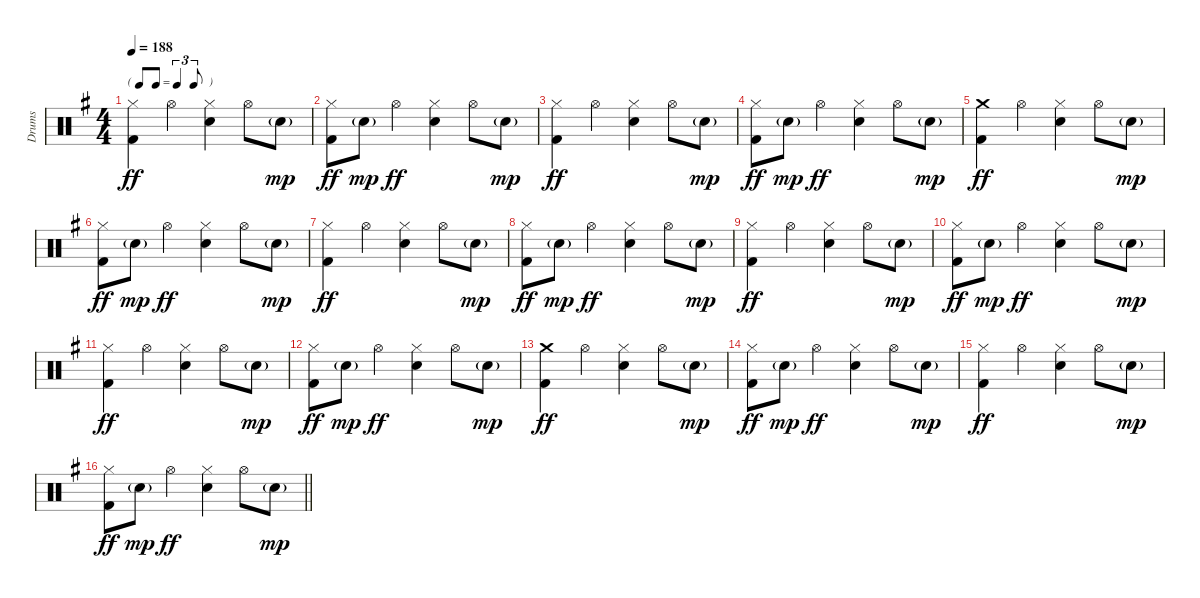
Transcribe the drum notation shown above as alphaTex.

\track ("Drums" "Drums") {instrument percussion}
\staff {score}
\articulation defaults
\ts (4 4)
\tf triplet8th
\tempo 188
\clef neutral
\ks g
("Hi-Hat (closed)" "Kick (hit) 2").4{dy ff} "Hi-Hat (open)".4 ("Hi-Hat (closed)" "Snare (hit) 2").4 "Hi-Hat (open)".8 "Snare (hit) 2"{g}.8{dy mp} |
("Hi-Hat (closed)" "Kick (hit) 2").8{dy ff} "Snare (hit) 2"{g}.8{dy mp} "Hi-Hat (open)".4{dy ff} ("Hi-Hat (closed)" "Snare (hit) 2").4 "Hi-Hat (open)".8 "Snare (hit) 2"{g}.8{dy mp} |
("Hi-Hat (closed)" "Kick (hit) 2").4{dy ff} "Hi-Hat (open)".4 ("Hi-Hat (closed)" "Snare (hit) 2").4 "Hi-Hat (open)".8 "Snare (hit) 2"{g}.8{dy mp} |
("Hi-Hat (closed)" "Kick (hit) 2").8{dy ff} "Snare (hit) 2"{g}.8{dy mp} "Hi-Hat (open)".4{dy ff} ("Hi-Hat (closed)" "Snare (hit) 2").4 "Hi-Hat (open)".8 "Snare (hit) 2"{g}.8{dy mp} |
("Crash medium (hit)" "Kick (hit) 2").4{dy ff} "Hi-Hat (open)".4 ("Hi-Hat (closed)" "Snare (hit) 2").4 "Hi-Hat (open)".8 "Snare (hit) 2"{g}.8{dy mp} |
("Hi-Hat (closed)" "Kick (hit) 2").8{dy ff} "Snare (hit) 2"{g}.8{dy mp} "Hi-Hat (open)".4{dy ff} ("Hi-Hat (closed)" "Snare (hit) 2").4 "Hi-Hat (open)".8 "Snare (hit) 2"{g}.8{dy mp} |
("Hi-Hat (closed)" "Kick (hit) 2").4{dy ff} "Hi-Hat (open)".4 ("Hi-Hat (closed)" "Snare (hit) 2").4 "Hi-Hat (open)".8 "Snare (hit) 2"{g}.8{dy mp} |
("Hi-Hat (closed)" "Kick (hit) 2").8{dy ff} "Snare (hit) 2"{g}.8{dy mp} "Hi-Hat (open)".4{dy ff} ("Hi-Hat (closed)" "Snare (hit) 2").4 "Hi-Hat (open)".8 "Snare (hit) 2"{g}.8{dy mp} |
("Hi-Hat (closed)" "Kick (hit) 2").4{dy ff} "Hi-Hat (open)".4 ("Hi-Hat (closed)" "Snare (hit) 2").4 "Hi-Hat (open)".8 "Snare (hit) 2"{g}.8{dy mp} |
("Hi-Hat (closed)" "Kick (hit) 2").8{dy ff} "Snare (hit) 2"{g}.8{dy mp} "Hi-Hat (open)".4{dy ff} ("Hi-Hat (closed)" "Snare (hit) 2").4 "Hi-Hat (open)".8 "Snare (hit) 2"{g}.8{dy mp} |
("Hi-Hat (closed)" "Kick (hit) 2").4{dy ff} "Hi-Hat (open)".4 ("Hi-Hat (closed)" "Snare (hit) 2").4 "Hi-Hat (open)".8 "Snare (hit) 2"{g}.8{dy mp} |
("Hi-Hat (closed)" "Kick (hit) 2").8{dy ff} "Snare (hit) 2"{g}.8{dy mp} "Hi-Hat (open)".4{dy ff} ("Hi-Hat (closed)" "Snare (hit) 2").4 "Hi-Hat (open)".8 "Snare (hit) 2"{g}.8{dy mp} |
("Crash medium (hit)" "Kick (hit) 2").4{dy ff} "Hi-Hat (open)".4 ("Hi-Hat (closed)" "Snare (hit) 2").4 "Hi-Hat (open)".8 "Snare (hit) 2"{g}.8{dy mp} |
("Hi-Hat (closed)" "Kick (hit) 2").8{dy ff} "Snare (hit) 2"{g}.8{dy mp} "Hi-Hat (open)".4{dy ff} ("Hi-Hat (closed)" "Snare (hit) 2").4 "Hi-Hat (open)".8 "Snare (hit) 2"{g}.8{dy mp} |
("Hi-Hat (closed)" "Kick (hit) 2").4{dy ff} "Hi-Hat (open)".4 ("Hi-Hat (closed)" "Snare (hit) 2").4 "Hi-Hat (open)".8 "Snare (hit) 2"{g}.8{dy mp} |
\barLineRight lightlight
("Hi-Hat (closed)" "Kick (hit) 2").8{dy ff} "Snare (hit) 2"{g}.8{dy mp} "Hi-Hat (open)".4{dy ff} ("Hi-Hat (closed)" "Snare (hit) 2").4 "Hi-Hat (open)".8 "Snare (hit) 2"{g}.8{dy mp}
